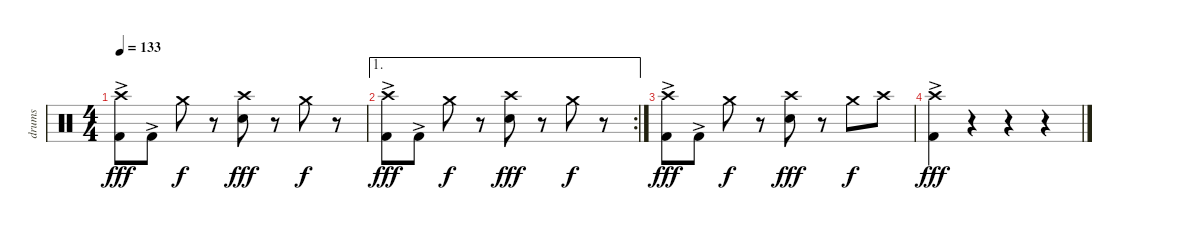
\track ("drums" "drums") {instrument percussion}
\staff {score}
\articulation defaults
\ts (4 4)
\tempo 133
\clef neutral
\ks c
("Kick (hit) 2"{ac} "Crash high (hit)").8{dy fff} "Kick (hit) 2"{ac}.8 "Crash medium (hit)".8{dy f} r.8 ("Crash high (hit)" "Snare (hit) 2").8{dy fff} r.8 "Crash medium (hit)".8{dy f} r.8 |
\ae 1
\rc 2
("Kick (hit) 2"{ac} "Crash high (hit)").8{dy fff} "Kick (hit) 2"{ac}.8 "Crash medium (hit)".8{dy f} r.8 ("Crash high (hit)" "Snare (hit) 2").8{dy fff} r.8 "Crash medium (hit)".8{dy f} r.8 |
("Kick (hit) 2"{ac} "Crash high (hit)").8{dy fff} "Kick (hit) 2"{ac}.8 "Crash medium (hit)".8{dy f} r.8 ("Crash high (hit)" "Snare (hit) 2").8{dy fff} r.8 "Crash medium (hit)".8{dy f} "Crash high (hit)".8 |
("Kick (hit) 2"{ac} "Crash high (hit)").4{dy fff} r.4 r.4 r.4
